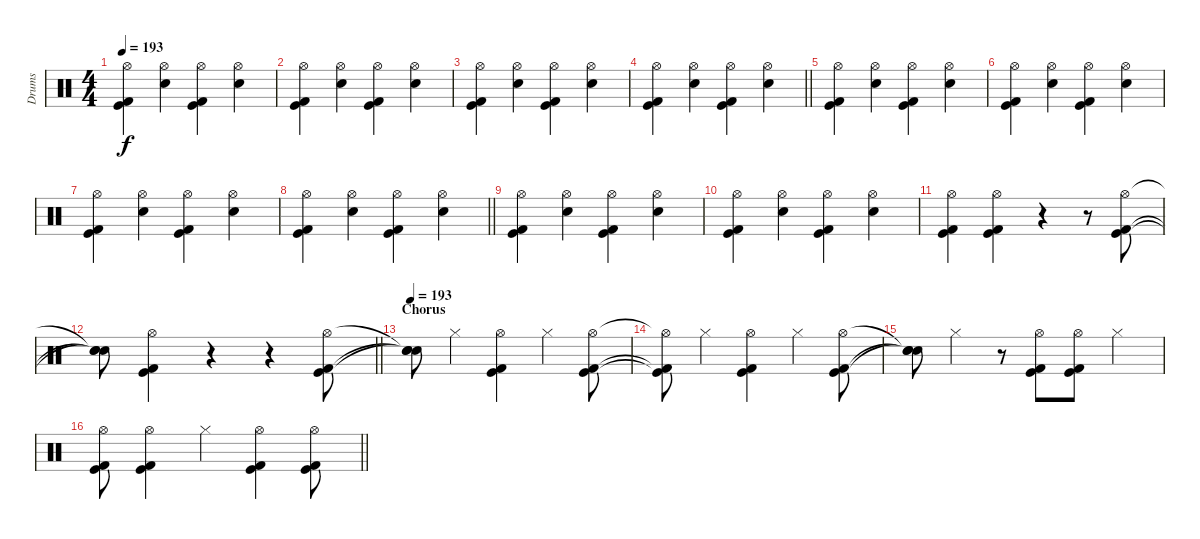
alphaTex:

\track ("Drums" "Drums") {instrument percussion}
\staff
\articulation defaults
\ts (4 4)
\tempo 193
\clef neutral
\ks c
("Hi-Hat (open)" "Kick (hit)" "Kick (hit) 2").4{dy f} ("Hi-Hat (open)" "Snare (hit) 2").4 ("Hi-Hat (open)" "Kick (hit)" "Kick (hit) 2").4 ("Hi-Hat (open)" "Snare (hit) 2").4 |
("Hi-Hat (open)" "Kick (hit)" "Kick (hit) 2").4 ("Hi-Hat (open)" "Snare (hit) 2").4 ("Hi-Hat (open)" "Kick (hit)" "Kick (hit) 2").4 ("Hi-Hat (open)" "Snare (hit) 2").4 |
("Hi-Hat (open)" "Kick (hit)" "Kick (hit) 2").4 ("Hi-Hat (open)" "Snare (hit) 2").4 ("Hi-Hat (open)" "Kick (hit)" "Kick (hit) 2").4 ("Hi-Hat (open)" "Snare (hit) 2").4 |
\barLineRight lightlight
("Hi-Hat (open)" "Kick (hit)" "Kick (hit) 2").4 ("Hi-Hat (open)" "Snare (hit) 2").4 ("Hi-Hat (open)" "Kick (hit)" "Kick (hit) 2").4 ("Hi-Hat (open)" "Snare (hit) 2").4 |
("Hi-Hat (open)" "Kick (hit)" "Kick (hit) 2").4 ("Hi-Hat (open)" "Snare (hit) 2").4 ("Hi-Hat (open)" "Kick (hit)" "Kick (hit) 2").4 ("Hi-Hat (open)" "Snare (hit) 2").4 |
("Hi-Hat (open)" "Kick (hit)" "Kick (hit) 2").4 ("Hi-Hat (open)" "Snare (hit) 2").4 ("Hi-Hat (open)" "Kick (hit)" "Kick (hit) 2").4 ("Hi-Hat (open)" "Snare (hit) 2").4 |
("Hi-Hat (open)" "Kick (hit)" "Kick (hit) 2").4 ("Hi-Hat (open)" "Snare (hit) 2").4 ("Hi-Hat (open)" "Kick (hit)" "Kick (hit) 2").4 ("Hi-Hat (open)" "Snare (hit) 2").4 |
\barLineRight lightlight
("Hi-Hat (open)" "Kick (hit)" "Kick (hit) 2").4 ("Hi-Hat (open)" "Snare (hit) 2").4 ("Hi-Hat (open)" "Kick (hit)" "Kick (hit) 2").4 ("Hi-Hat (open)" "Snare (hit) 2").4 |
("Hi-Hat (open)" "Kick (hit)" "Kick (hit) 2").4 ("Hi-Hat (open)" "Snare (hit) 2").4 ("Hi-Hat (open)" "Kick (hit)" "Kick (hit) 2").4 ("Hi-Hat (open)" "Snare (hit) 2").4 |
("Hi-Hat (open)" "Kick (hit)" "Kick (hit) 2").4 ("Hi-Hat (open)" "Snare (hit) 2").4 ("Hi-Hat (open)" "Kick (hit)" "Kick (hit) 2").4 ("Hi-Hat (open)" "Snare (hit) 2").4 |
("Hi-Hat (open)" "Kick (hit)" "Kick (hit) 2").4 ("Hi-Hat (open)" "Kick (hit)" "Kick (hit) 2").4 r.4 r.8 ("Hi-Hat (open)" "Kick (hit)" "Kick (hit) 2").8 |
\barLineRight lightlight
("Snare (hit)"{t} "Snare (hit)"{t} "Snare (hit)"{t}).8 ("Hi-Hat (open)" "Kick (hit)" "Kick (hit) 2").4 r.4 r.4 ("Hi-Hat (open)" "Kick (hit)" "Kick (hit) 2").8 |
\section ("" "Chorus")
\tempo 193
("Snare (hit)"{t} "Snare (hit)"{t} "Snare (hit)"{t}).8 "Hi-Hat (closed)".4 ("Hi-Hat (open)" "Kick (hit)" "Kick (hit) 2").4 "Hi-Hat (closed)".4 ("Hi-Hat (open)" "Kick (hit)" "Kick (hit) 2").8 |
("Hi-Hat (open)"{t} "Kick (hit)"{t} "Kick (hit) 2"{t}).8 "Hi-Hat (closed)".4 ("Hi-Hat (open)" "Kick (hit)" "Kick (hit) 2").4 "Hi-Hat (closed)".4 ("Hi-Hat (open)" "Kick (hit)" "Kick (hit) 2").8 |
("Snare (hit)"{t} "Snare (hit)"{t} "Snare (hit)"{t}).8 "Hi-Hat (closed)".4 r.8 ("Hi-Hat (open)" "Kick (hit)" "Kick (hit) 2").8 ("Hi-Hat (open)" "Kick (hit)" "Kick (hit) 2").8 "Hi-Hat (closed)".4 |
\barLineRight lightlight
("Hi-Hat (open)" "Kick (hit)" "Kick (hit) 2").8 ("Hi-Hat (open)" "Kick (hit)" "Kick (hit) 2").4 "Hi-Hat (closed)".4 ("Hi-Hat (open)" "Kick (hit)" "Kick (hit) 2").4 ("Hi-Hat (open)" "Kick (hit)" "Kick (hit) 2").8
